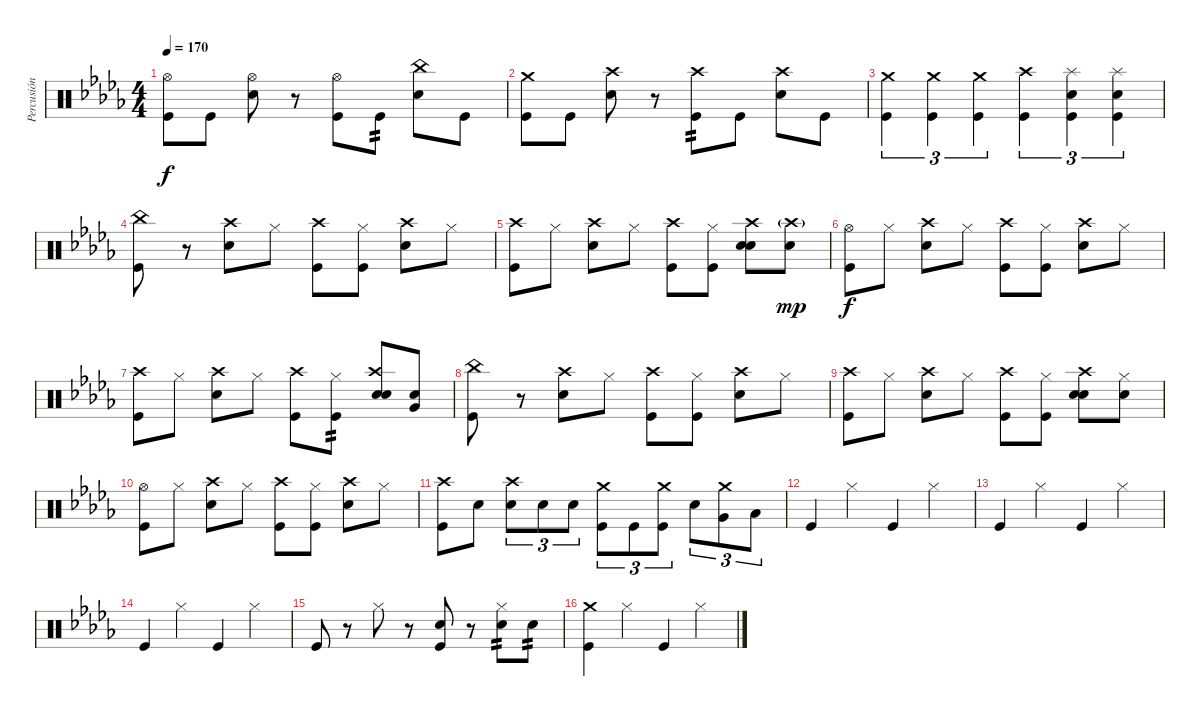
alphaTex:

\track ("Percusión" "Percusión") {instrument percussion}
\staff {score}
\articulation defaults
\ts (4 4)
\tempo 170
\clef neutral
\ks db
("Hi-Hat (open)" "Kick (hit)").8{dy f} "Kick (hit)".8 ("Hi-Hat (open)" "Electric Snare (hit)").8 r.8 ("Hi-Hat (open)" "Kick (hit)").8 "Kick (hit)".8{tp 2} ("China (hit)" "Electric Snare (hit)").8 "Kick (hit)".8 |
("Crash medium (hit)" "Kick (hit)").8 "Kick (hit)".8 ("Crash high (hit)" "Electric Snare (hit)").8 r.8 ("Crash high (hit)" "Kick (hit)").8{tp 2} "Kick (hit)".8 ("Crash high (hit)" "Electric Snare (hit)").8 "Kick (hit)".8 |
("Crash medium (hit)" "Kick (hit)").4{tu (3 2)} ("Crash medium (hit)" "Kick (hit)").4{tu (3 2)} ("Crash medium (hit)" "Kick (hit)").4{tu (3 2)} ("Crash high (hit)" "Kick (hit)").4{tu (3 2)} ("Splash (hit)" "Electric Snare (hit)" "Kick (hit)").4{tu (3 2)} ("Splash (hit)" "Electric Snare (hit)" "Kick (hit)").4{tu (3 2)} |
("China (hit)" "Kick (hit)").8 r.8 ("Crash high (hit)" "Electric Snare (hit)").8 "Hi-Hat (closed)".8 ("Crash high (hit)" "Kick (hit)").8 ("Hi-Hat (closed)" "Kick (hit)").8 ("Crash high (hit)" "Electric Snare (hit)").8 "Hi-Hat (closed)".8 |
("Crash high (hit)" "Kick (hit)").8 "Hi-Hat (closed)".8 ("Crash high (hit)" "Electric Snare (hit)").8 "Hi-Hat (closed)".8 ("Crash high (hit)" "Kick (hit)").8 ("Hi-Hat (closed)" "Kick (hit)").8 ("Crash high (hit)" "Electric Snare (hit)" "Hand Clap (hit)").8 ("Crash high (hit)"{g} "Hand Clap (hit)").8{dy mp} |
("Hi-Hat (open)" "Kick (hit)").8{dy f} "Hi-Hat (closed)".8 ("Crash high (hit)" "Electric Snare (hit)").8 "Hi-Hat (closed)".8 ("Crash high (hit)" "Kick (hit)").8 ("Hi-Hat (closed)" "Kick (hit)").8 ("Crash high (hit)" "Electric Snare (hit)").8 "Hi-Hat (closed)".8 |
("Crash high (hit)" "Kick (hit)").8 "Hi-Hat (closed)".8 ("Crash high (hit)" "Electric Snare (hit)").8 "Hi-Hat (closed)".8 ("Crash high (hit)" "Kick (hit)").8 ("Hi-Hat (closed)" "Kick (hit)").8{tp 2} ("Crash high (hit)" "Hand Clap (hit)" "Electric Snare (hit)").8 ("Hand Clap (hit)" "Very Low Tom (hit)").8 |
("China (hit)" "Kick (hit)").8 r.8 ("Crash high (hit)" "Electric Snare (hit)").8 "Hi-Hat (closed)".8 ("Crash high (hit)" "Kick (hit)").8 ("Hi-Hat (closed)" "Kick (hit)").8 ("Crash high (hit)" "Electric Snare (hit)").8 "Hi-Hat (closed)".8 |
("Crash high (hit)" "Kick (hit)").8 "Hi-Hat (closed)".8 ("Crash high (hit)" "Electric Snare (hit)").8 "Hi-Hat (closed)".8 ("Crash high (hit)" "Kick (hit)").8 ("Hi-Hat (closed)" "Kick (hit)").8 ("Crash high (hit)" "Hand Clap (hit)" "Electric Snare (hit)").8 ("Hi-Hat (closed)" "Hand Clap (hit)").8 |
("Hi-Hat (open)" "Kick (hit)").8 "Hi-Hat (closed)".8 ("Crash high (hit)" "Electric Snare (hit)").8 "Hi-Hat (closed)".8 ("Crash high (hit)" "Kick (hit)").8 ("Hi-Hat (closed)" "Kick (hit)").8 ("Crash high (hit)" "Electric Snare (hit)").8 "Hi-Hat (closed)".8 |
("Crash high (hit)" "Kick (hit)").8 "Electric Snare (hit)".8 ("Crash high (hit)" "Electric Snare (hit)").8{tu (3 2)} "Electric Snare (hit)".8{tu (3 2)} "Electric Snare (hit)".8{tu (3 2)} ("Crash medium (hit)" "Kick (hit)").8{tu (3 2)} "Kick (hit)".8{tu (3 2)} ("Crash medium (hit)" "Kick (hit)").8{tu (3 2)} "Electric Snare (hit)".8{tu (3 2)} ("Crash medium (hit)" "Very Low Tom (hit)").8{tu (3 2)} "Low Floor Tom (hit)".8{tu (3 2)} |
"Kick (hit)".4 "Hi-Hat (closed)".4 "Kick (hit)".4 "Hi-Hat (closed)".4 |
"Kick (hit)".4 "Hi-Hat (closed)".4 "Kick (hit)".4 "Hi-Hat (closed)".4 |
"Kick (hit)".4 "Hi-Hat (closed)".4 "Kick (hit)".4 "Hi-Hat (closed)".4 |
"Kick (hit)".8 r.8 "Hi-Hat (closed)".8 r.8 ("Electric Snare (hit)" "Kick (hit)").8 r.8 ("Hi-Hat (closed)" "Electric Snare (hit)").8{tp 2} "Electric Snare (hit)".8{tp 2} |
("Crash medium (hit)" "Kick (hit)").4 "Hi-Hat (closed)".4 "Kick (hit)".4 "Hi-Hat (closed)".4
